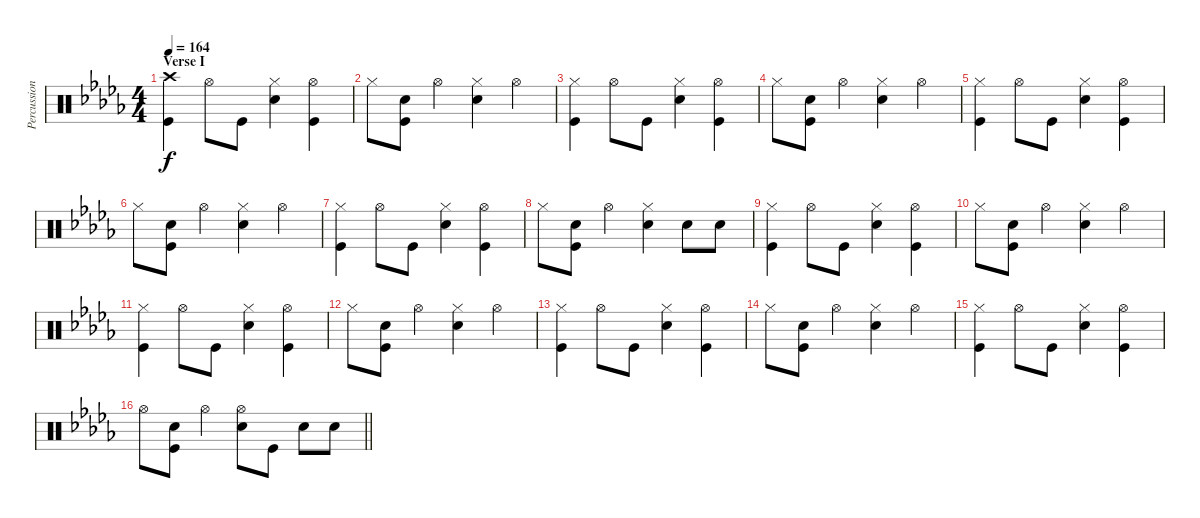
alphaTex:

\track ("Percussion" "Percussion") {instrument percussion}
\staff {score}
\articulation defaults
\ts (4 4)
\section ("" "Verse I")
\tempo 164
\clef neutral
\ks db
("Crash high (hit)" "Kick (hit)").4{dy f} "Hi-Hat (open)".8 "Kick (hit)".8 ("Hi-Hat (closed)" "Electric Snare (hit)").4 ("Hi-Hat (open)" "Kick (hit)").4 |
"Hi-Hat (closed)".8 ("Electric Snare (hit)" "Kick (hit)").8 "Hi-Hat (open)".4 ("Hi-Hat (closed)" "Electric Snare (hit)").4 "Hi-Hat (open)".4 |
("Hi-Hat (closed)" "Kick (hit)").4 "Hi-Hat (open)".8 "Kick (hit)".8 ("Hi-Hat (closed)" "Electric Snare (hit)").4 ("Hi-Hat (open)" "Kick (hit)").4 |
"Hi-Hat (closed)".8 ("Electric Snare (hit)" "Kick (hit)").8 "Hi-Hat (open)".4 ("Hi-Hat (closed)" "Electric Snare (hit)").4 "Hi-Hat (open)".4 |
("Hi-Hat (closed)" "Kick (hit)").4 "Hi-Hat (open)".8 "Kick (hit)".8 ("Hi-Hat (closed)" "Electric Snare (hit)").4 ("Hi-Hat (open)" "Kick (hit)").4 |
"Hi-Hat (closed)".8 ("Electric Snare (hit)" "Kick (hit)").8 "Hi-Hat (open)".4 ("Hi-Hat (closed)" "Electric Snare (hit)").4 "Hi-Hat (open)".4 |
("Hi-Hat (closed)" "Kick (hit)").4 "Hi-Hat (open)".8 "Kick (hit)".8 ("Hi-Hat (closed)" "Electric Snare (hit)").4 ("Hi-Hat (open)" "Kick (hit)").4 |
"Hi-Hat (closed)".8 ("Electric Snare (hit)" "Kick (hit)").8 "Hi-Hat (open)".4 ("Hi-Hat (closed)" "Electric Snare (hit)").4 "Electric Snare (hit)".8 "Electric Snare (hit)".8 |
("Hi-Hat (closed)" "Kick (hit)").4 "Hi-Hat (open)".8 "Kick (hit)".8 ("Hi-Hat (closed)" "Electric Snare (hit)").4 ("Hi-Hat (open)" "Kick (hit)").4 |
"Hi-Hat (closed)".8 ("Electric Snare (hit)" "Kick (hit)").8 "Hi-Hat (open)".4 ("Hi-Hat (closed)" "Electric Snare (hit)").4 "Hi-Hat (open)".4 |
("Hi-Hat (closed)" "Kick (hit)").4 "Hi-Hat (open)".8 "Kick (hit)".8 ("Hi-Hat (closed)" "Electric Snare (hit)").4 ("Hi-Hat (open)" "Kick (hit)").4 |
"Hi-Hat (closed)".8 ("Electric Snare (hit)" "Kick (hit)").8 "Hi-Hat (open)".4 ("Hi-Hat (closed)" "Electric Snare (hit)").4 "Hi-Hat (open)".4 |
("Hi-Hat (closed)" "Kick (hit)").4 "Hi-Hat (open)".8 "Kick (hit)".8 ("Hi-Hat (closed)" "Electric Snare (hit)").4 ("Hi-Hat (open)" "Kick (hit)").4 |
"Hi-Hat (closed)".8 ("Electric Snare (hit)" "Kick (hit)").8 "Hi-Hat (open)".4 ("Hi-Hat (closed)" "Electric Snare (hit)").4 "Hi-Hat (open)".4 |
("Hi-Hat (closed)" "Kick (hit)").4 "Hi-Hat (open)".8 "Kick (hit)".8 ("Hi-Hat (closed)" "Electric Snare (hit)").4 ("Hi-Hat (open)" "Kick (hit)").4 |
\barLineRight lightlight "Hi-Hat (open)".8
("Electric Snare (hit)" "Kick (hit)").8 "Hi-Hat (open)".4 ("Hi-Hat (open)" "Electric Snare (hit)").8 "Kick (hit)".8 "Electric Snare (hit)".8 "Electric Snare (hit)".8
